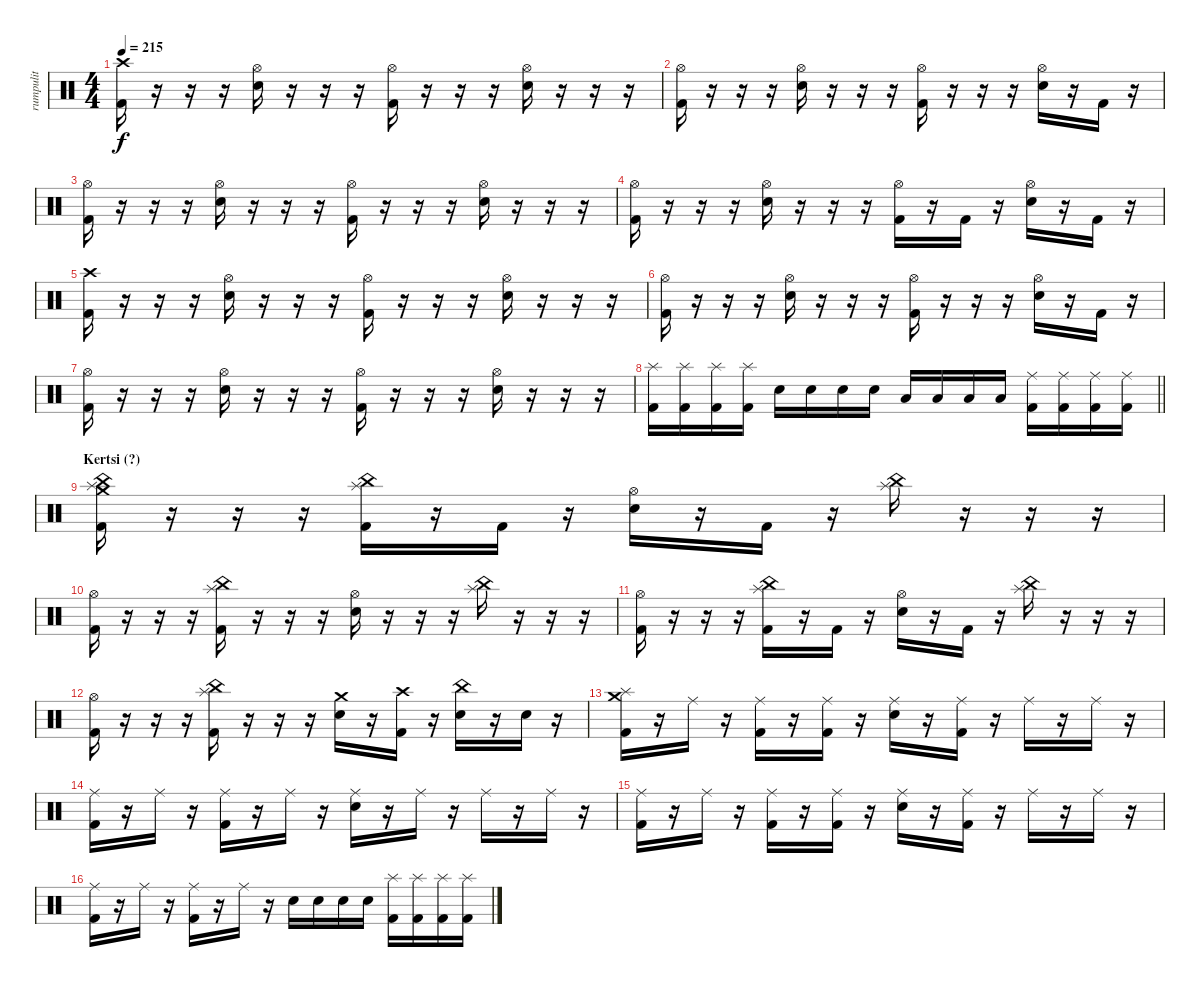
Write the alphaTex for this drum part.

\track ("rumpulit" "rumpulit") {instrument percussion}
\staff {score}
\articulation defaults
\ts (4 4)
\tempo 215
\clef neutral
\ks c
("Crash high (hit)" "Kick (hit) 2").16{dy f} r.16 r.16 r.16 ("Hi-Hat (open)" "Electric Snare (hit)").16 r.16 r.16 r.16 ("Hi-Hat (open)" "Kick (hit) 2").16 r.16 r.16 r.16 ("Hi-Hat (open)" "Electric Snare (hit)").16 r.16 r.16 r.16 |
("Hi-Hat (open)" "Kick (hit) 2").16 r.16 r.16 r.16 ("Hi-Hat (open)" "Electric Snare (hit)").16 r.16 r.16 r.16 ("Hi-Hat (open)" "Kick (hit) 2").16 r.16 r.16 r.16 ("Hi-Hat (open)" "Electric Snare (hit)").16 r.16 "Kick (hit) 2".16 r.16 |
("Hi-Hat (open)" "Kick (hit) 2").16 r.16 r.16 r.16 ("Hi-Hat (open)" "Electric Snare (hit)").16 r.16 r.16 r.16 ("Hi-Hat (open)" "Kick (hit) 2").16 r.16 r.16 r.16 ("Hi-Hat (open)" "Electric Snare (hit)").16 r.16 r.16 r.16 |
("Hi-Hat (open)" "Kick (hit) 2").16 r.16 r.16 r.16 ("Hi-Hat (open)" "Electric Snare (hit)").16 r.16 r.16 r.16 ("Hi-Hat (open)" "Kick (hit) 2").16 r.16 "Kick (hit) 2".16 r.16 ("Hi-Hat (open)" "Electric Snare (hit)").16 r.16 "Kick (hit) 2".16 r.16 |
("Crash high (hit)" "Kick (hit) 2").16 r.16 r.16 r.16 ("Hi-Hat (open)" "Electric Snare (hit)").16 r.16 r.16 r.16 ("Hi-Hat (open)" "Kick (hit) 2").16 r.16 r.16 r.16 ("Hi-Hat (open)" "Electric Snare (hit)").16 r.16 r.16 r.16 |
("Hi-Hat (open)" "Kick (hit) 2").16 r.16 r.16 r.16 ("Hi-Hat (open)" "Electric Snare (hit)").16 r.16 r.16 r.16 ("Hi-Hat (open)" "Kick (hit) 2").16 r.16 r.16 r.16 ("Hi-Hat (open)" "Electric Snare (hit)").16 r.16 "Kick (hit) 2".16 r.16 |
("Hi-Hat (open)" "Kick (hit) 2").16 r.16 r.16 r.16 ("Hi-Hat (open)" "Electric Snare (hit)").16 r.16 r.16 r.16 ("Hi-Hat (open)" "Kick (hit) 2").16 r.16 r.16 r.16 ("Hi-Hat (open)" "Electric Snare (hit)").16 r.16 r.16 r.16 |
\barLineRight lightlight
("Splash (hit)" "Kick (hit) 2").16 ("Splash (hit)" "Kick (hit) 2").16 ("Splash (hit)" "Kick (hit) 2").16 ("Splash (hit)" "Kick (hit) 2").16 "Electric Snare (hit)".16 "Electric Snare (hit)".16 "Electric Snare (hit)".16 "Electric Snare (hit)".16 "Low Tom (hit)".16 "Low Tom (hit)".16 "Low Tom (hit)".16 "Low Tom (hit)".16 ("Ride (middle)" "Kick (hit) 2").16 ("Ride (middle)" "Kick (hit) 2").16 ("Ride (middle)" "Kick (hit) 2").16 ("Ride (middle)" "Kick (hit) 2").16 |
\section ("" "Kertsi (?)")
("Crash medium (hit)" "Kick (hit) 2" "China (hit)" "Splash (hit)").16 r.16 r.16 r.16 ("China (hit)" "Kick (hit) 2" "Splash (hit)").16 r.16 "Kick (hit) 2".16 r.16 ("Hi-Hat (open)" "Electric Snare (hit)").16 r.16 "Kick (hit) 2".16 r.16 ("China (hit)" "Splash (hit)").16 r.16 r.16 r.16 |
("Hi-Hat (open)" "Kick (hit) 2").16 r.16 r.16 r.16 ("Splash (hit)" "Kick (hit) 2" "China (hit)").16 r.16 r.16 r.16 ("Hi-Hat (open)" "Electric Snare (hit)").16 r.16 r.16 r.16 ("Splash (hit)" "China (hit)").16 r.16 r.16 r.16 |
("Hi-Hat (open)" "Kick (hit) 2").16 r.16 r.16 r.16 ("Splash (hit)" "Kick (hit) 2" "China (hit)").16 r.16 "Kick (hit) 2".16 r.16 ("Hi-Hat (open)" "Electric Snare (hit)").16 r.16 "Kick (hit) 2".16 r.16 ("Splash (hit)" "China (hit)").16 r.16 r.16 r.16 |
("Hi-Hat (open)" "Kick (hit) 2").16 r.16 r.16 r.16 ("Splash (hit)" "Kick (hit) 2" "China (hit)").16 r.16 r.16 r.16 ("Crash medium (hit)" "Electric Snare (hit)").16 r.16 ("Crash high (hit)" "Kick (hit) 2").16 r.16 ("Electric Snare (hit)" "China (hit)").16 r.16 "Electric Snare (hit)".16 r.16 |
("Crash medium (hit)" "Kick (hit) 2" "Splash (hit)").16 r.16 "Ride (middle)".16 r.16 ("Ride (middle)" "Kick (hit) 2").16 r.16 ("Ride (middle)" "Kick (hit) 2").16 r.16 ("Ride (middle)" "Electric Snare (hit)").16 r.16 ("Ride (middle)" "Kick (hit) 2").16 r.16 "Ride (middle)".16 r.16 "Ride (middle)".16 r.16 |
("Ride (middle)" "Kick (hit) 2").16 r.16 "Ride (middle)".16 r.16 ("Ride (middle)" "Kick (hit) 2").16 r.16 "Ride (middle)".16 r.16 ("Ride (middle)" "Electric Snare (hit)").16 r.16 "Ride (middle)".16 r.16 "Ride (middle)".16 r.16 "Ride (middle)".16 r.16 |
("Ride (middle)" "Kick (hit) 2").16 r.16 "Ride (middle)".16 r.16 ("Ride (middle)" "Kick (hit) 2").16 r.16 ("Ride (middle)" "Kick (hit) 2").16 r.16 ("Ride (middle)" "Electric Snare (hit)").16 r.16 ("Ride (middle)" "Kick (hit) 2").16 r.16 "Ride (middle)".16 r.16 "Ride (middle)".16 r.16 |
("Ride (middle)" "Kick (hit) 2").16 r.16 "Ride (middle)".16 r.16 ("Ride (middle)" "Kick (hit) 2").16 r.16 "Ride (middle)".16 r.16 "Electric Snare (hit)".16 "Electric Snare (hit)".16 "Electric Snare (hit)".16 "Electric Snare (hit)".16 ("Splash (hit)" "Kick (hit) 2").16 ("Splash (hit)" "Kick (hit) 2").16 ("Splash (hit)" "Kick (hit) 2").16 ("Splash (hit)" "Kick (hit) 2").16
